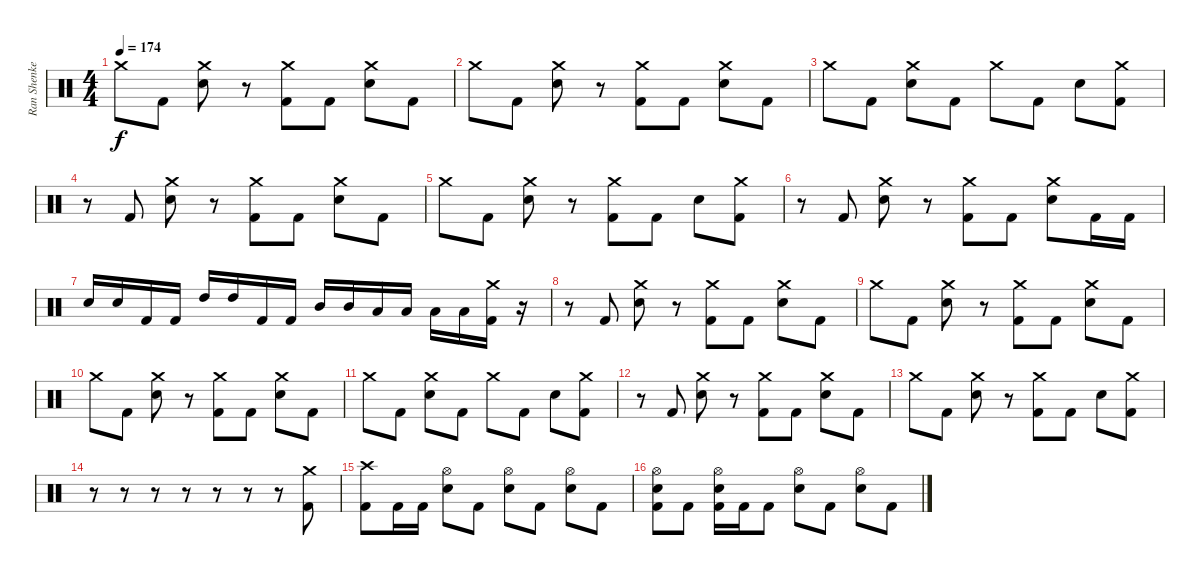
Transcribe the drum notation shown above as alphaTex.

\track ("Ran Shenkerman" "Ran Shenke") {instrument percussion}
\staff {score}
\articulation defaults
\ts (4 4)
\tempo 174
\clef neutral
\ks c "Crash medium (hit)".8{dy f} "Kick (hit) 2".8
("Crash medium (hit)" "Snare (hit) 2").8 r.8 ("Crash medium (hit)" "Kick (hit) 2").8 "Kick (hit) 2".8 ("Crash medium (hit)" "Snare (hit) 2").8 "Kick (hit) 2".8 |
"Crash medium (hit)".8 "Kick (hit) 2".8 ("Crash medium (hit)" "Snare (hit) 2").8 r.8 ("Crash medium (hit)" "Kick (hit) 2").8 "Kick (hit) 2".8 ("Crash medium (hit)" "Snare (hit) 2").8 "Kick (hit) 2".8 |
"Crash medium (hit)".8 "Kick (hit) 2".8 ("Crash medium (hit)" "Snare (hit) 2").8 "Kick (hit) 2".8 "Crash medium (hit)".8 "Kick (hit) 2".8 "Snare (hit) 2".8 ("Crash medium (hit)" "Kick (hit) 2").8 |
r.8 "Kick (hit) 2".8 ("Crash medium (hit)" "Snare (hit) 2").8 r.8 ("Crash medium (hit)" "Kick (hit) 2").8 "Kick (hit) 2".8 ("Crash medium (hit)" "Snare (hit) 2").8 "Kick (hit) 2".8 |
"Crash medium (hit)".8 "Kick (hit) 2".8 ("Crash medium (hit)" "Snare (hit) 2").8 r.8 ("Crash medium (hit)" "Kick (hit) 2").8 "Kick (hit) 2".8 "Snare (hit) 2".8 ("Crash medium (hit)" "Kick (hit) 2").8 |
r.8 "Kick (hit) 2".8 ("Crash medium (hit)" "Snare (hit) 2").8 r.8 ("Crash medium (hit)" "Kick (hit) 2").8 "Kick (hit) 2".8 ("Crash medium (hit)" "Snare (hit) 2").8 "Kick (hit) 2".16 "Kick (hit) 2".16 |
"Snare (hit) 2".16 "Snare (hit) 2".16 "Kick (hit) 2".16 "Kick (hit) 2".16 "High Tom (hit)".16 "High Tom (hit)".16 "Kick (hit) 2".16 "Kick (hit) 2".16 "Mid Tom (hit)".16 "Mid Tom (hit)".16 "Low Tom (hit)".16 "Low Tom (hit)".16 "Low Floor Tom (hit)".16 "Low Floor Tom (hit)".16 ("Crash medium (hit)" "Kick (hit) 2").16 r.16 |
r.8 "Kick (hit) 2".8 ("Crash medium (hit)" "Snare (hit) 2").8 r.8 ("Crash medium (hit)" "Kick (hit) 2").8 "Kick (hit) 2".8 ("Crash medium (hit)" "Snare (hit) 2").8 "Kick (hit) 2".8 |
"Crash medium (hit)".8 "Kick (hit) 2".8 ("Crash medium (hit)" "Snare (hit) 2").8 r.8 ("Crash medium (hit)" "Kick (hit) 2").8 "Kick (hit) 2".8 ("Crash medium (hit)" "Snare (hit) 2").8 "Kick (hit) 2".8 |
"Crash medium (hit)".8 "Kick (hit) 2".8 ("Crash medium (hit)" "Snare (hit) 2").8 r.8 ("Crash medium (hit)" "Kick (hit) 2").8 "Kick (hit) 2".8 ("Crash medium (hit)" "Snare (hit) 2").8 "Kick (hit) 2".8 |
"Crash medium (hit)".8 "Kick (hit) 2".8 ("Crash medium (hit)" "Snare (hit) 2").8 "Kick (hit) 2".8 "Crash medium (hit)".8 "Kick (hit) 2".8 "Snare (hit) 2".8 ("Crash medium (hit)" "Kick (hit) 2").8 |
r.8 "Kick (hit) 2".8 ("Crash medium (hit)" "Snare (hit) 2").8 r.8 ("Crash medium (hit)" "Kick (hit) 2").8 "Kick (hit) 2".8 ("Crash medium (hit)" "Snare (hit) 2").8 "Kick (hit) 2".8 |
"Crash medium (hit)".8 "Kick (hit) 2".8 ("Crash medium (hit)" "Snare (hit) 2").8 r.8 ("Crash medium (hit)" "Kick (hit) 2").8 "Kick (hit) 2".8 "Snare (hit) 2".8 ("Crash medium (hit)" "Kick (hit) 2").8 |
r.8 r.8 r.8 r.8 r.8 r.8 r.8 ("Crash medium (hit)" "Kick (hit) 2").8 |
("Crash high (hit)" "Kick (hit) 2").8 "Kick (hit) 2".16 "Kick (hit) 2".16 ("Hi-Hat (open)" "Snare (hit) 2").8 "Kick (hit) 2".8 ("Hi-Hat (open)" "Snare (hit) 2").8 "Kick (hit) 2".8 ("Hi-Hat (open)" "Snare (hit) 2").8 "Kick (hit) 2".8 |
("Hi-Hat (open)" "Snare (hit) 2" "Kick (hit) 2").8 "Kick (hit) 2".8 ("Hi-Hat (open)" "Snare (hit) 2" "Kick (hit) 2").16 "Kick (hit) 2".16 "Kick (hit) 2".8 ("Hi-Hat (open)" "Snare (hit) 2").8 "Kick (hit) 2".8 ("Hi-Hat (open)" "Snare (hit) 2").8 "Kick (hit) 2".8
